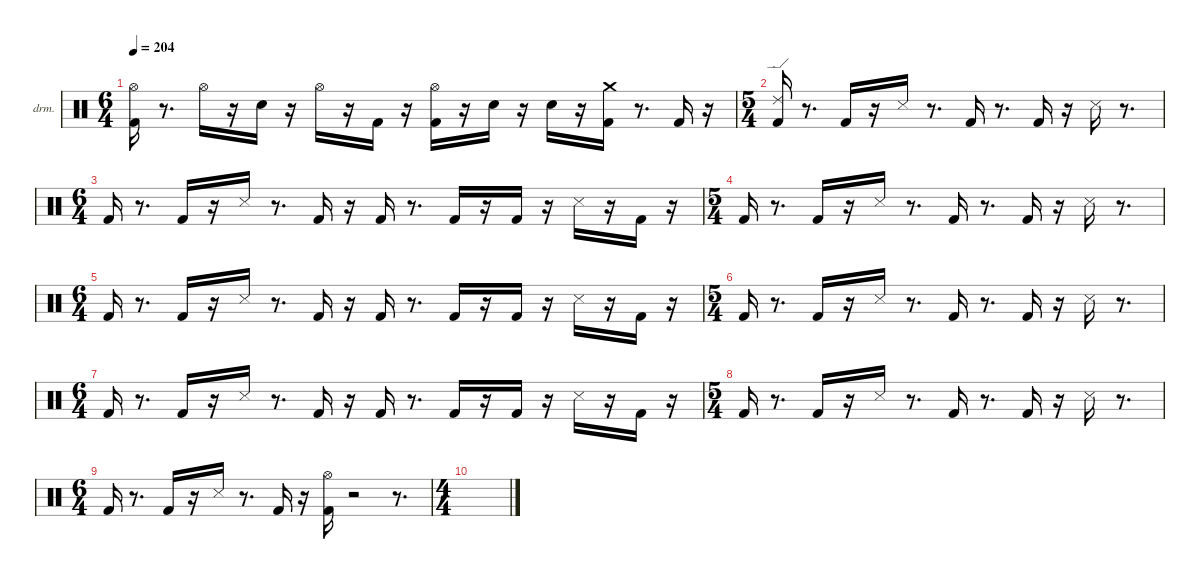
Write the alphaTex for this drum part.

\hideDynamics
\bracketExtendMode nobrackets
\firstSystemTrackNameOrientation horizontal
\otherSystemsTrackNameOrientation horizontal
\track ("drums" "drm.") {instrument percussion}
\staff {score}
\articulation defaults
\ts (6 4)
\tempo 204
\clef neutral
\ks aminor
("Kick (hit) 2" "Hi-Hat (open)"{acc #}).16{dy fff beam Down} r.8{d beam Down} "Hi-Hat (open)"{acc #}.16{dy mp beam Down} r.16{beam Down} "Snare (hit) 2".16{dy ff beam Down} r.16{beam Down} "Hi-Hat (open)"{acc #}.16{dy f beam Down} r.16{beam Down} "Kick (hit) 2".16{dy mf beam Up} r.16{beam Up} ("Kick (hit) 2" "Hi-Hat (open)"{acc #}).16{dy fff beam Down} r.16{beam Down} "Snare (hit) 2".16{dy ff beam Down} r.16{beam Down} "Snare (hit) 2".16{dy p beam Down} r.16{beam Down} ("Kick (hit) 2" "Crash medium (hit)").16{dy ff beam Down} r.8{d beam Down} "Kick (hit) 2".16{dy mf beam Up} r.16{beam Up} |
\ts (5 4)
("Kick (hit) 2" "Ride (edge) 2").16{dy fff beam Up} r.8{d beam Up} "Kick (hit) 2".16{dy f beam Up} r.16{beam Up} "Snare (side stick) 3"{acc #}.16{dy ff beam Down} r.8{d beam Down} "Kick (hit) 2".16{dy f beam Up} r.8{d beam Up} "Kick (hit) 2".16{beam Up} r.16{beam Up} "Snare (side stick) 3"{acc #}.16{dy ff beam Down} r.8{d beam Down} |
\ts (6 4)
"Kick (hit) 2".16{dy f beam Up} r.8{d beam Up} "Kick (hit) 2".16{beam Up} r.16{beam Up} "Snare (side stick) 3"{acc #}.16{dy ff beam Down} r.8{d beam Down} "Kick (hit) 2".16{dy mp beam Up} r.16{beam Up} "Kick (hit) 2".16{dy fff beam Up} r.8{d beam Up} "Kick (hit) 2".16{dy f beam Up} r.16{beam Up} "Kick (hit) 2".16{dy ff beam Up} r.16{beam Up} "Snare (side stick) 3"{acc #}.16{dy fff beam Down} r.16{beam Down} "Kick (hit) 2".16{dy mf beam Up} r.16{beam Up} |
\ts (5 4)
"Kick (hit) 2".16{dy fff beam Up} r.8{d beam Up} "Kick (hit) 2".16{dy f beam Up} r.16{beam Up} "Snare (side stick) 3"{acc #}.16{dy ff beam Down} r.8{d beam Down} "Kick (hit) 2".16{dy f beam Up} r.8{d beam Up} "Kick (hit) 2".16{beam Up} r.16{beam Up} "Snare (side stick) 3"{acc #}.16{dy ff beam Down} r.8{d beam Down} |
\ts (6 4)
"Kick (hit) 2".16{dy f beam Up} r.8{d beam Up} "Kick (hit) 2".16{beam Up} r.16{beam Up} "Snare (side stick) 3"{acc #}.16{dy ff beam Down} r.8{d beam Down} "Kick (hit) 2".16{dy mp beam Up} r.16{beam Up} "Kick (hit) 2".16{dy fff beam Up} r.8{d beam Up} "Kick (hit) 2".16{dy f beam Up} r.16{beam Up} "Kick (hit) 2".16{dy ff beam Up} r.16{beam Up} "Snare (side stick) 3"{acc #}.16{dy fff beam Down} r.16{beam Down} "Kick (hit) 2".16{dy mf beam Up} r.16{beam Up} |
\ts (5 4)
"Kick (hit) 2".16{dy fff beam Up} r.8{d beam Up} "Kick (hit) 2".16{dy f beam Up} r.16{beam Up} "Snare (side stick) 3"{acc #}.16{dy ff beam Down} r.8{d beam Down} "Kick (hit) 2".16{dy f beam Up} r.8{d beam Up} "Kick (hit) 2".16{beam Up} r.16{beam Up} "Snare (side stick) 3"{acc #}.16{dy ff beam Down} r.8{d beam Down} |
\ts (6 4)
"Kick (hit) 2".16{dy f beam Up} r.8{d beam Up} "Kick (hit) 2".16{beam Up} r.16{beam Up} "Snare (side stick) 3"{acc #}.16{dy ff beam Down} r.8{d beam Down} "Kick (hit) 2".16{dy mp beam Up} r.16{beam Up} "Kick (hit) 2".16{dy fff beam Up} r.8{d beam Up} "Kick (hit) 2".16{dy f beam Up} r.16{beam Up} "Kick (hit) 2".16{dy ff beam Up} r.16{beam Up} "Snare (side stick) 3"{acc #}.16{dy fff beam Down} r.16{beam Down} "Kick (hit) 2".16{dy mf beam Up} r.16{beam Up} |
\ts (5 4)
"Kick (hit) 2".16{dy fff beam Up} r.8{d beam Up} "Kick (hit) 2".16{dy f beam Up} r.16{beam Up} "Snare (side stick) 3"{acc #}.16{dy ff beam Down} r.8{d beam Down} "Kick (hit) 2".16{dy f beam Up} r.8{d beam Up} "Kick (hit) 2".16{beam Up} r.16{beam Up} "Snare (side stick) 3"{acc #}.16{dy ff beam Down} r.8{d beam Down} |
\ts (6 4)
"Kick (hit) 2".16{dy f beam Up} r.8{d beam Up} "Kick (hit) 2".16{beam Up} r.16{beam Up} "Snare (side stick) 3"{acc #}.16{dy ff beam Down} r.8{d beam Down} "Kick (hit) 2".16{dy mp beam Up} r.16{beam Up} ("Kick (hit) 2" "Hi-Hat (open)"{acc #}).16{dy fff beam Down} r.2{beam Down} r.8{d beam Down} |
\ts (4 4)
\ks c
